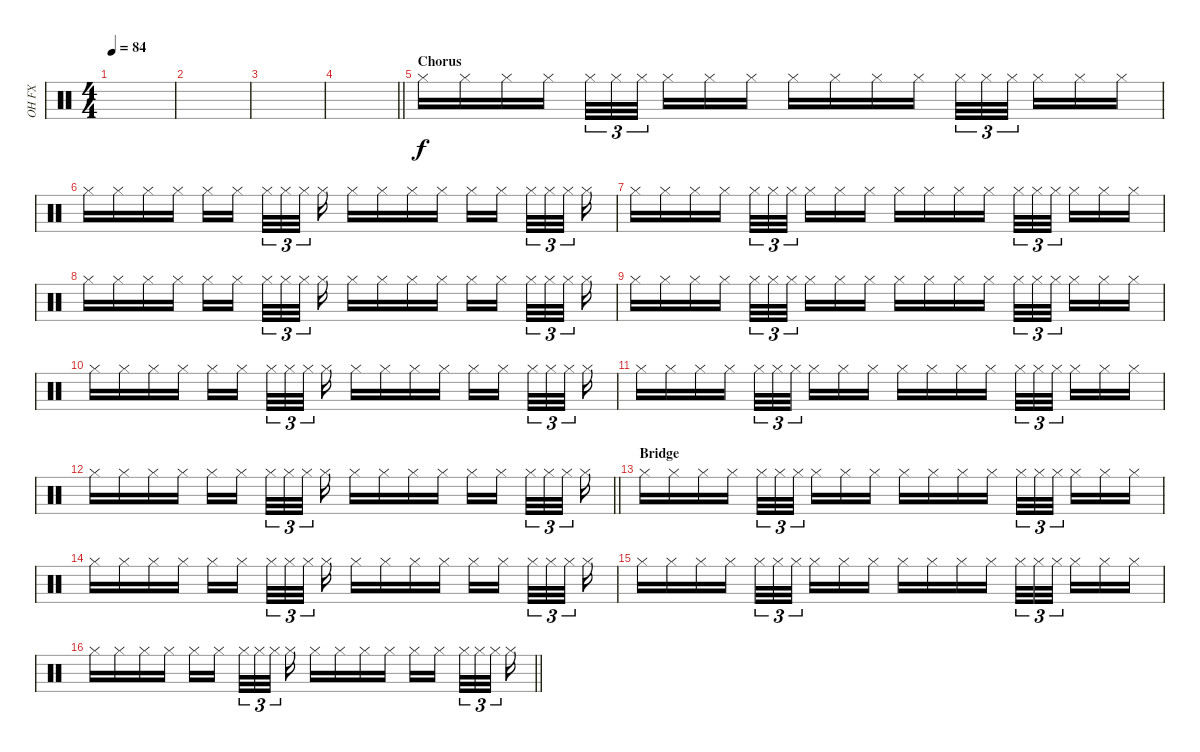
\track ("OH FX" "OH FX") {instrument percussion}
\staff {score}
\articulation defaults
\ts (4 4)
\tempo 84
\clef neutral
\ks c
|
|
|
\barLineRight lightlight
|
\section ("" "Chorus")
"Hi-Hat (closed)".16 "Hi-Hat (closed)".16 "Hi-Hat (closed)".16 "Hi-Hat (closed)".16 "Hi-Hat (closed)".32{tu (3 2)} "Hi-Hat (closed)".32{tu (3 2)} "Hi-Hat (closed)".32{tu (3 2) beam splitsecondary} "Hi-Hat (closed)".16 "Hi-Hat (closed)".16 "Hi-Hat (closed)".16 "Hi-Hat (closed)".16 "Hi-Hat (closed)".16 "Hi-Hat (closed)".16 "Hi-Hat (closed)".16 "Hi-Hat (closed)".32{tu (3 2)} "Hi-Hat (closed)".32{tu (3 2)} "Hi-Hat (closed)".32{tu (3 2) beam splitsecondary} "Hi-Hat (closed)".16 "Hi-Hat (closed)".16 "Hi-Hat (closed)".16 |
"Hi-Hat (closed)".16 "Hi-Hat (closed)".16 "Hi-Hat (closed)".16 "Hi-Hat (closed)".16 "Hi-Hat (closed)".16 "Hi-Hat (closed)".16{beam splitsecondary} "Hi-Hat (closed)".32{tu (3 2)} "Hi-Hat (closed)".32{tu (3 2)} "Hi-Hat (closed)".32{tu (3 2) beam splitsecondary} "Hi-Hat (closed)".16 "Hi-Hat (closed)".16 "Hi-Hat (closed)".16 "Hi-Hat (closed)".16 "Hi-Hat (closed)".16 "Hi-Hat (closed)".16 "Hi-Hat (closed)".16{beam splitsecondary} "Hi-Hat (closed)".32{tu (3 2)} "Hi-Hat (closed)".32{tu (3 2)} "Hi-Hat (closed)".32{tu (3 2) beam splitsecondary} "Hi-Hat (closed)".16 |
"Hi-Hat (closed)".16 "Hi-Hat (closed)".16 "Hi-Hat (closed)".16 "Hi-Hat (closed)".16 "Hi-Hat (closed)".32{tu (3 2)} "Hi-Hat (closed)".32{tu (3 2)} "Hi-Hat (closed)".32{tu (3 2) beam splitsecondary} "Hi-Hat (closed)".16 "Hi-Hat (closed)".16 "Hi-Hat (closed)".16 "Hi-Hat (closed)".16 "Hi-Hat (closed)".16 "Hi-Hat (closed)".16 "Hi-Hat (closed)".16 "Hi-Hat (closed)".32{tu (3 2)} "Hi-Hat (closed)".32{tu (3 2)} "Hi-Hat (closed)".32{tu (3 2) beam splitsecondary} "Hi-Hat (closed)".16 "Hi-Hat (closed)".16 "Hi-Hat (closed)".16 |
"Hi-Hat (closed)".16 "Hi-Hat (closed)".16 "Hi-Hat (closed)".16 "Hi-Hat (closed)".16 "Hi-Hat (closed)".16 "Hi-Hat (closed)".16{beam splitsecondary} "Hi-Hat (closed)".32{tu (3 2)} "Hi-Hat (closed)".32{tu (3 2)} "Hi-Hat (closed)".32{tu (3 2) beam splitsecondary} "Hi-Hat (closed)".16 "Hi-Hat (closed)".16 "Hi-Hat (closed)".16 "Hi-Hat (closed)".16 "Hi-Hat (closed)".16 "Hi-Hat (closed)".16 "Hi-Hat (closed)".16{beam splitsecondary} "Hi-Hat (closed)".32{tu (3 2)} "Hi-Hat (closed)".32{tu (3 2)} "Hi-Hat (closed)".32{tu (3 2) beam splitsecondary} "Hi-Hat (closed)".16 |
"Hi-Hat (closed)".16 "Hi-Hat (closed)".16 "Hi-Hat (closed)".16 "Hi-Hat (closed)".16 "Hi-Hat (closed)".32{tu (3 2)} "Hi-Hat (closed)".32{tu (3 2)} "Hi-Hat (closed)".32{tu (3 2) beam splitsecondary} "Hi-Hat (closed)".16 "Hi-Hat (closed)".16 "Hi-Hat (closed)".16 "Hi-Hat (closed)".16 "Hi-Hat (closed)".16 "Hi-Hat (closed)".16 "Hi-Hat (closed)".16 "Hi-Hat (closed)".32{tu (3 2)} "Hi-Hat (closed)".32{tu (3 2)} "Hi-Hat (closed)".32{tu (3 2) beam splitsecondary} "Hi-Hat (closed)".16 "Hi-Hat (closed)".16 "Hi-Hat (closed)".16 |
"Hi-Hat (closed)".16 "Hi-Hat (closed)".16 "Hi-Hat (closed)".16 "Hi-Hat (closed)".16 "Hi-Hat (closed)".16 "Hi-Hat (closed)".16{beam splitsecondary} "Hi-Hat (closed)".32{tu (3 2)} "Hi-Hat (closed)".32{tu (3 2)} "Hi-Hat (closed)".32{tu (3 2) beam splitsecondary} "Hi-Hat (closed)".16 "Hi-Hat (closed)".16 "Hi-Hat (closed)".16 "Hi-Hat (closed)".16 "Hi-Hat (closed)".16 "Hi-Hat (closed)".16 "Hi-Hat (closed)".16{beam splitsecondary} "Hi-Hat (closed)".32{tu (3 2)} "Hi-Hat (closed)".32{tu (3 2)} "Hi-Hat (closed)".32{tu (3 2) beam splitsecondary} "Hi-Hat (closed)".16 |
"Hi-Hat (closed)".16 "Hi-Hat (closed)".16 "Hi-Hat (closed)".16 "Hi-Hat (closed)".16 "Hi-Hat (closed)".32{tu (3 2)} "Hi-Hat (closed)".32{tu (3 2)} "Hi-Hat (closed)".32{tu (3 2) beam splitsecondary} "Hi-Hat (closed)".16 "Hi-Hat (closed)".16 "Hi-Hat (closed)".16 "Hi-Hat (closed)".16 "Hi-Hat (closed)".16 "Hi-Hat (closed)".16 "Hi-Hat (closed)".16 "Hi-Hat (closed)".32{tu (3 2)} "Hi-Hat (closed)".32{tu (3 2)} "Hi-Hat (closed)".32{tu (3 2) beam splitsecondary} "Hi-Hat (closed)".16 "Hi-Hat (closed)".16 "Hi-Hat (closed)".16 |
\barLineRight lightlight "Hi-Hat (closed)".16 "Hi-Hat (closed)".16 "Hi-Hat (closed)".16 "Hi-Hat (closed)".16 "Hi-Hat (closed)".16 "Hi-Hat (closed)".16{beam splitsecondary} "Hi-Hat (closed)".32{tu (3 2)} "Hi-Hat (closed)".32{tu (3 2)} "Hi-Hat (closed)".32{tu (3 2) beam splitsecondary} "Hi-Hat (closed)".16 "Hi-Hat (closed)".16 "Hi-Hat (closed)".16 "Hi-Hat (closed)".16 "Hi-Hat (closed)".16 "Hi-Hat (closed)".16 "Hi-Hat (closed)".16{beam splitsecondary} "Hi-Hat (closed)".32{tu (3 2)} "Hi-Hat (closed)".32{tu (3 2)} "Hi-Hat (closed)".32{tu (3 2) beam splitsecondary} "Hi-Hat (closed)".16
|
\section ("" "Bridge")
"Hi-Hat (closed)".16 "Hi-Hat (closed)".16 "Hi-Hat (closed)".16 "Hi-Hat (closed)".16 "Hi-Hat (closed)".32{tu (3 2)} "Hi-Hat (closed)".32{tu (3 2)} "Hi-Hat (closed)".32{tu (3 2) beam splitsecondary} "Hi-Hat (closed)".16 "Hi-Hat (closed)".16 "Hi-Hat (closed)".16 "Hi-Hat (closed)".16 "Hi-Hat (closed)".16 "Hi-Hat (closed)".16 "Hi-Hat (closed)".16 "Hi-Hat (closed)".32{tu (3 2)} "Hi-Hat (closed)".32{tu (3 2)} "Hi-Hat (closed)".32{tu (3 2) beam splitsecondary} "Hi-Hat (closed)".16 "Hi-Hat (closed)".16 "Hi-Hat (closed)".16 |
"Hi-Hat (closed)".16 "Hi-Hat (closed)".16 "Hi-Hat (closed)".16 "Hi-Hat (closed)".16 "Hi-Hat (closed)".16 "Hi-Hat (closed)".16{beam splitsecondary} "Hi-Hat (closed)".32{tu (3 2)} "Hi-Hat (closed)".32{tu (3 2)} "Hi-Hat (closed)".32{tu (3 2) beam splitsecondary} "Hi-Hat (closed)".16 "Hi-Hat (closed)".16 "Hi-Hat (closed)".16 "Hi-Hat (closed)".16 "Hi-Hat (closed)".16 "Hi-Hat (closed)".16 "Hi-Hat (closed)".16{beam splitsecondary} "Hi-Hat (closed)".32{tu (3 2)} "Hi-Hat (closed)".32{tu (3 2)} "Hi-Hat (closed)".32{tu (3 2) beam splitsecondary} "Hi-Hat (closed)".16 |
"Hi-Hat (closed)".16 "Hi-Hat (closed)".16 "Hi-Hat (closed)".16 "Hi-Hat (closed)".16 "Hi-Hat (closed)".32{tu (3 2)} "Hi-Hat (closed)".32{tu (3 2)} "Hi-Hat (closed)".32{tu (3 2) beam splitsecondary} "Hi-Hat (closed)".16 "Hi-Hat (closed)".16 "Hi-Hat (closed)".16 "Hi-Hat (closed)".16 "Hi-Hat (closed)".16 "Hi-Hat (closed)".16 "Hi-Hat (closed)".16 "Hi-Hat (closed)".32{tu (3 2)} "Hi-Hat (closed)".32{tu (3 2)} "Hi-Hat (closed)".32{tu (3 2) beam splitsecondary} "Hi-Hat (closed)".16 "Hi-Hat (closed)".16 "Hi-Hat (closed)".16 |
\barLineRight lightlight "Hi-Hat (closed)".16 "Hi-Hat (closed)".16 "Hi-Hat (closed)".16 "Hi-Hat (closed)".16 "Hi-Hat (closed)".16 "Hi-Hat (closed)".16{beam splitsecondary} "Hi-Hat (closed)".32{tu (3 2)} "Hi-Hat (closed)".32{tu (3 2)} "Hi-Hat (closed)".32{tu (3 2) beam splitsecondary} "Hi-Hat (closed)".16 "Hi-Hat (closed)".16 "Hi-Hat (closed)".16 "Hi-Hat (closed)".16 "Hi-Hat (closed)".16 "Hi-Hat (closed)".16 "Hi-Hat (closed)".16{beam splitsecondary} "Hi-Hat (closed)".32{tu (3 2)} "Hi-Hat (closed)".32{tu (3 2)} "Hi-Hat (closed)".32{tu (3 2) beam splitsecondary} "Hi-Hat (closed)".16
